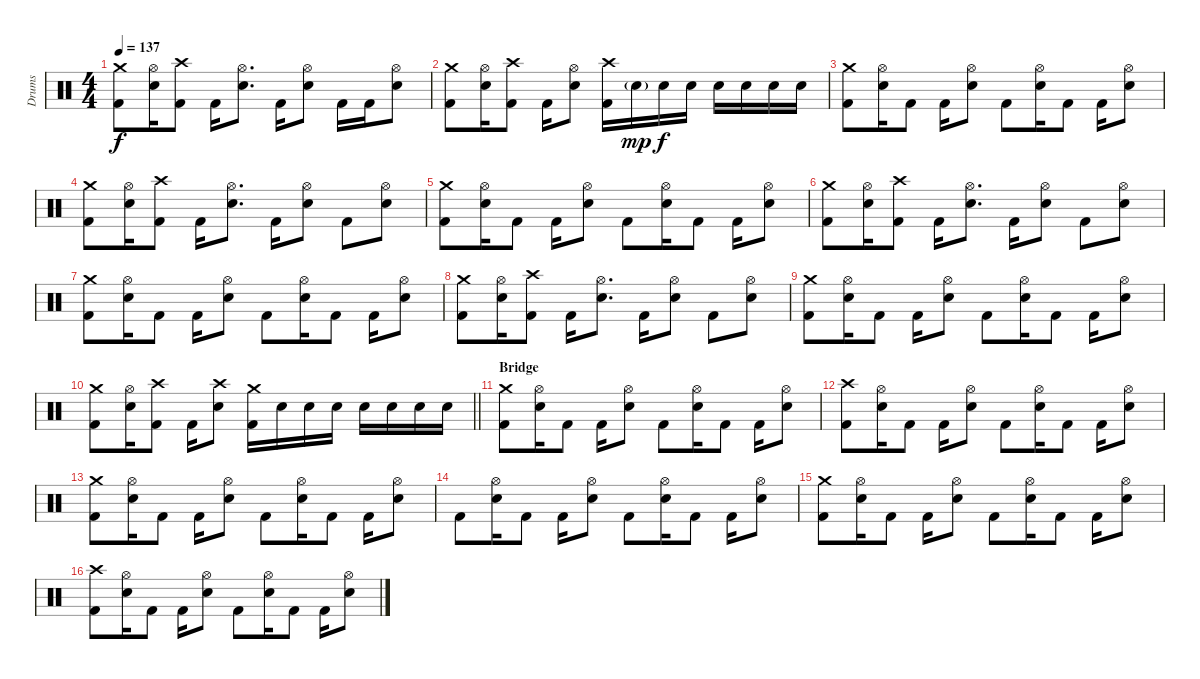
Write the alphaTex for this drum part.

\track ("Drums" "Drums") {instrument percussion}
\staff {score}
\articulation defaults
\ts (4 4)
\tempo 137
\clef neutral
\ks c
("Crash medium (hit)" "Kick (hit) 2").8{dy f} ("Hi-Hat (open)" "Electric Snare (hit)").16 ("Crash high (hit)" "Kick (hit) 2").8 "Kick (hit) 2".16 ("Hi-Hat (open)" "Electric Snare (hit)").8{d} "Kick (hit) 2".16 ("Hi-Hat (open)" "Electric Snare (hit)").8 "Kick (hit) 2".16 "Kick (hit) 2".16 ("Hi-Hat (open)" "Electric Snare (hit)").8 |
("Crash medium (hit)" "Kick (hit) 2").8 ("Hi-Hat (open)" "Electric Snare (hit)").16 ("Crash high (hit)" "Kick (hit) 2").8 "Kick (hit) 2".16 ("Hi-Hat (open)" "Electric Snare (hit)").8 ("Crash high (hit)" "Kick (hit) 2").16 "Electric Snare (hit)"{g}.16{dy mp} "Electric Snare (hit)".16{dy f} "Electric Snare (hit)".16 "Electric Snare (hit)".16 "Electric Snare (hit)".16 "Electric Snare (hit)".16 "Electric Snare (hit)".16 |
("Crash medium (hit)" "Kick (hit) 2").8 ("Hi-Hat (open)" "Electric Snare (hit)").16 "Kick (hit) 2".8 "Kick (hit) 2".16 ("Hi-Hat (open)" "Electric Snare (hit)").8 "Kick (hit) 2".8 ("Hi-Hat (open)" "Electric Snare (hit)").16 "Kick (hit) 2".8 "Kick (hit) 2".16 ("Hi-Hat (open)" "Electric Snare (hit)").8 |
("Crash medium (hit)" "Kick (hit) 2").8 ("Hi-Hat (open)" "Electric Snare (hit)").16 ("Crash high (hit)" "Kick (hit) 2").8 "Kick (hit) 2".16 ("Hi-Hat (open)" "Electric Snare (hit)").8{d} "Kick (hit) 2".16 ("Hi-Hat (open)" "Electric Snare (hit)").8 "Kick (hit) 2".8 ("Hi-Hat (open)" "Electric Snare (hit)").8 |
("Crash medium (hit)" "Kick (hit) 2").8 ("Hi-Hat (open)" "Electric Snare (hit)").16 "Kick (hit) 2".8 "Kick (hit) 2".16 ("Hi-Hat (open)" "Electric Snare (hit)").8 "Kick (hit) 2".8 ("Hi-Hat (open)" "Electric Snare (hit)").16 "Kick (hit) 2".8 "Kick (hit) 2".16 ("Hi-Hat (open)" "Electric Snare (hit)").8 |
("Crash medium (hit)" "Kick (hit) 2").8 ("Hi-Hat (open)" "Electric Snare (hit)").16 ("Crash high (hit)" "Kick (hit) 2").8 "Kick (hit) 2".16 ("Hi-Hat (open)" "Electric Snare (hit)").8{d} "Kick (hit) 2".16 ("Hi-Hat (open)" "Electric Snare (hit)").8 "Kick (hit) 2".8 ("Hi-Hat (open)" "Electric Snare (hit)").8 |
("Crash medium (hit)" "Kick (hit) 2").8 ("Hi-Hat (open)" "Electric Snare (hit)").16 "Kick (hit) 2".8 "Kick (hit) 2".16 ("Hi-Hat (open)" "Electric Snare (hit)").8 "Kick (hit) 2".8 ("Hi-Hat (open)" "Electric Snare (hit)").16 "Kick (hit) 2".8 "Kick (hit) 2".16 ("Hi-Hat (open)" "Electric Snare (hit)").8 |
("Crash medium (hit)" "Kick (hit) 2").8 ("Hi-Hat (open)" "Electric Snare (hit)").16 ("Crash high (hit)" "Kick (hit) 2").8 "Kick (hit) 2".16 ("Hi-Hat (open)" "Electric Snare (hit)").8{d} "Kick (hit) 2".16 ("Hi-Hat (open)" "Electric Snare (hit)").8 "Kick (hit) 2".8 ("Hi-Hat (open)" "Electric Snare (hit)").8 |
("Crash medium (hit)" "Kick (hit) 2").8 ("Hi-Hat (open)" "Electric Snare (hit)").16 "Kick (hit) 2".8 "Kick (hit) 2".16 ("Hi-Hat (open)" "Electric Snare (hit)").8 "Kick (hit) 2".8 ("Hi-Hat (open)" "Electric Snare (hit)").16 "Kick (hit) 2".8 "Kick (hit) 2".16 ("Hi-Hat (open)" "Electric Snare (hit)").8 |
\barLineRight lightlight
("Crash medium (hit)" "Kick (hit) 2").8 ("Hi-Hat (open)" "Electric Snare (hit)").16 ("Crash high (hit)" "Kick (hit) 2").8 "Kick (hit) 2".16 ("Crash high (hit)" "Electric Snare (hit)").8 ("Crash medium (hit)" "Kick (hit) 2").16 "Electric Snare (hit)".16 "Electric Snare (hit)".16 "Electric Snare (hit)".16 "Electric Snare (hit)".16 "Electric Snare (hit)".16 "Electric Snare (hit)".16 "Electric Snare (hit)".16 |
\section ("" "Bridge")
("Crash medium (hit)" "Kick (hit) 2").8 ("Hi-Hat (open)" "Electric Snare (hit)").16 "Kick (hit) 2".8 "Kick (hit) 2".16 ("Hi-Hat (open)" "Electric Snare (hit)").8 "Kick (hit) 2".8 ("Hi-Hat (open)" "Electric Snare (hit)").16 "Kick (hit) 2".8 "Kick (hit) 2".16 ("Hi-Hat (open)" "Electric Snare (hit)").8 |
("Crash high (hit)" "Kick (hit) 2").8 ("Hi-Hat (open)" "Electric Snare (hit)").16 "Kick (hit) 2".8 "Kick (hit) 2".16 ("Hi-Hat (open)" "Electric Snare (hit)").8 "Kick (hit) 2".8 ("Hi-Hat (open)" "Electric Snare (hit)").16 "Kick (hit) 2".8 "Kick (hit) 2".16 ("Hi-Hat (open)" "Electric Snare (hit)").8 |
("Crash medium (hit)" "Kick (hit) 2").8 ("Hi-Hat (open)" "Electric Snare (hit)").16 "Kick (hit) 2".8 "Kick (hit) 2".16 ("Hi-Hat (open)" "Electric Snare (hit)").8 "Kick (hit) 2".8 ("Hi-Hat (open)" "Electric Snare (hit)").16 "Kick (hit) 2".8 "Kick (hit) 2".16 ("Hi-Hat (open)" "Electric Snare (hit)").8 |
"Kick (hit) 2".8 ("Hi-Hat (open)" "Electric Snare (hit)").16 "Kick (hit) 2".8 "Kick (hit) 2".16 ("Hi-Hat (open)" "Electric Snare (hit)").8 "Kick (hit) 2".8 ("Hi-Hat (open)" "Electric Snare (hit)").16 "Kick (hit) 2".8 "Kick (hit) 2".16 ("Hi-Hat (open)" "Electric Snare (hit)").8 |
("Crash medium (hit)" "Kick (hit) 2").8 ("Hi-Hat (open)" "Electric Snare (hit)").16 "Kick (hit) 2".8 "Kick (hit) 2".16 ("Hi-Hat (open)" "Electric Snare (hit)").8 "Kick (hit) 2".8 ("Hi-Hat (open)" "Electric Snare (hit)").16 "Kick (hit) 2".8 "Kick (hit) 2".16 ("Hi-Hat (open)" "Electric Snare (hit)").8 |
("Crash high (hit)" "Kick (hit) 2").8 ("Hi-Hat (open)" "Electric Snare (hit)").16 "Kick (hit) 2".8 "Kick (hit) 2".16 ("Hi-Hat (open)" "Electric Snare (hit)").8 "Kick (hit) 2".8 ("Hi-Hat (open)" "Electric Snare (hit)").16 "Kick (hit) 2".8 "Kick (hit) 2".16 ("Hi-Hat (open)" "Electric Snare (hit)").8
